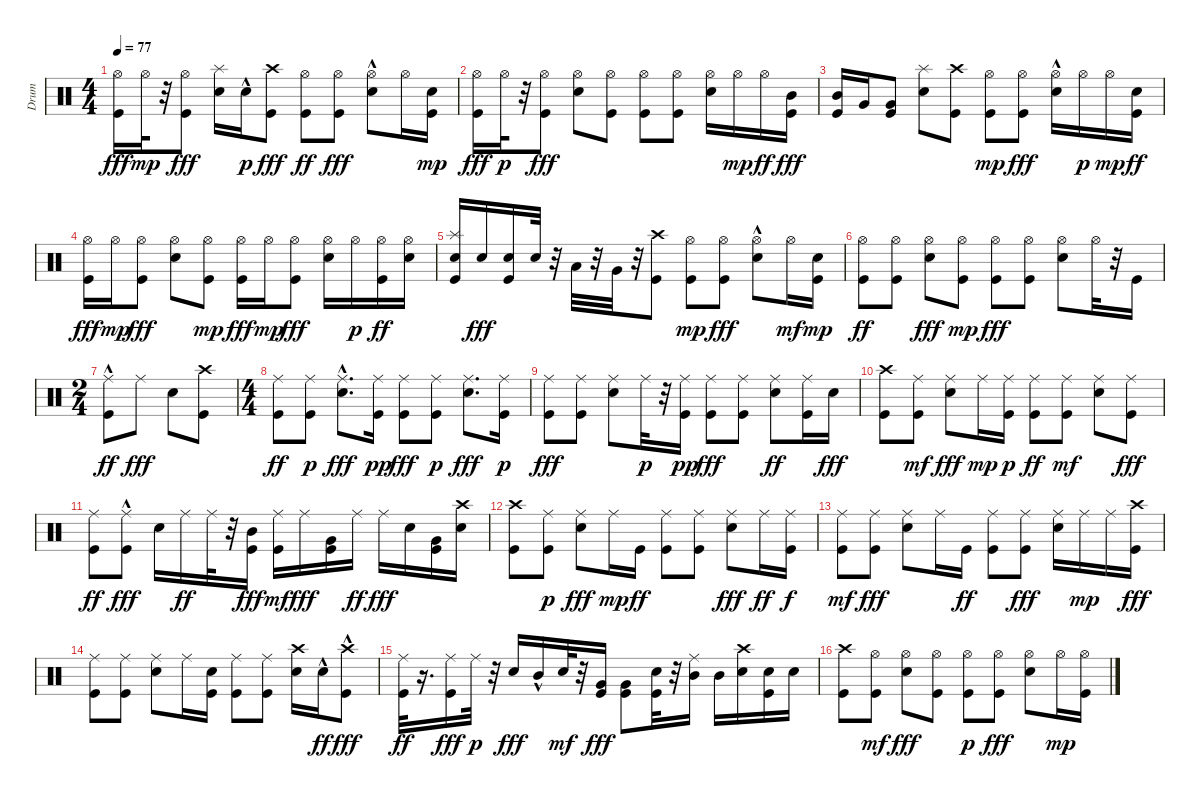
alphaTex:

\track ("Drum" "Drum") {instrument percussion}
\staff {score}
\articulation defaults
\ts (4 4)
\tempo 77
\clef neutral
\ks c
("Kick (hit)" "Hi-Hat (open)").16{dy fff} "Hi-Hat (open)".32{dy mp} r.32 ("Kick (hit)" "Hi-Hat (open)").8{dy fff} ("Splash (hit)" "Snare (hit) 2").16 "Snare (hit) 2"{hac}.16{dy p} ("Kick (hit)" "Crash high (hit)").8{dy fff} ("Kick (hit)" "Hi-Hat (open)").8{dy ff} ("Kick (hit)" "Hi-Hat (open)").8{dy fff} ("Hi-Hat (open)" "Snare (hit) 2"{hac}).8 "Hi-Hat (open)".16 ("Kick (hit)" "Snare (hit) 2").16{dy mp} |
("Kick (hit)" "Hi-Hat (open)").16{dy fff} "Hi-Hat (open)".32{dy p} r.32 ("Kick (hit)" "Hi-Hat (open)").8{dy fff} ("Hi-Hat (open)" "Snare (hit) 2").8 ("Kick (hit)" "Hi-Hat (open)").8 ("Kick (hit)" "Hi-Hat (open)").8 ("Kick (hit)" "Hi-Hat (open)").8 ("Hi-Hat (open)" "Snare (hit) 2").16 "Hi-Hat (open)".16{dy mp} "Hi-Hat (open)".16{dy ff} ("Kick (hit)" "Mid Tom (hit)").16{dy fff} |
("Kick (hit)" "Mid Tom (hit)").16 "Very Low Tom (hit)".16 ("Kick (hit)" "Very Low Tom (hit)").8 ("Splash (hit)" "Snare (hit) 2").8 ("Kick (hit)" "Crash high (hit)").8 ("Kick (hit)" "Hi-Hat (open)").8{dy mp} ("Kick (hit)" "Hi-Hat (open)").8{dy fff} ("Hi-Hat (open)" "Snare (hit) 2"{hac}).16 "Hi-Hat (open)".16{dy p} "Hi-Hat (open)".16{dy mp} ("Kick (hit)" "Snare (hit) 2").16{dy ff} |
("Kick (hit)" "Hi-Hat (open)").16{dy fff} "Hi-Hat (open)".16{dy mp} ("Kick (hit)" "Hi-Hat (open)").8{dy fff} ("Hi-Hat (open)" "Snare (hit) 2").8 ("Kick (hit)" "Hi-Hat (open)").8{dy mp} ("Kick (hit)" "Hi-Hat (open)").16{dy fff} "Hi-Hat (open)".16{dy mp} ("Kick (hit)" "Hi-Hat (open)").8{dy fff} ("Hi-Hat (open)" "Snare (hit) 2").16 "Hi-Hat (open)".16{dy p} ("Kick (hit)" "Hi-Hat (open)").16{dy ff} ("Snare (hit) 2" "Hi-Hat (open)").16 |
("Kick (hit)" "Splash (hit)" "Snare (hit) 2").16 "Snare (hit) 2".16{dy fff} ("Kick (hit)" "Snare (hit) 2").16 "Snare (hit) 2".32 r.32 "Low Tom (hit)".32 r.32 "Very Low Tom (hit)".32 r.32 ("Kick (hit)" "Crash high (hit)").8 ("Kick (hit)" "Hi-Hat (open)").8{dy mp} ("Kick (hit)" "Hi-Hat (open)").8{dy fff} ("Hi-Hat (open)" "Snare (hit) 2"{hac}).8 "Hi-Hat (open)".16{dy mf} ("Kick (hit)" "Snare (hit) 2").16{dy mp} |
("Kick (hit)" "Hi-Hat (open)").8{dy ff} ("Kick (hit)" "Hi-Hat (open)").8 ("Hi-Hat (open)" "Snare (hit) 2").8{dy fff} ("Kick (hit)" "Hi-Hat (open)").8{dy mp} ("Kick (hit)" "Hi-Hat (open)").8{dy fff} ("Kick (hit)" "Hi-Hat (open)").8 ("Hi-Hat (open)" "Snare (hit) 2").8 "Hi-Hat (open)".32 r.32 "Kick (hit)".16 |
\ts (2 4)
("Kick (hit)"{hac} "Ride (middle)").8{dy ff} "Ride (middle)".8{dy fff} "Snare (hit) 2".8 ("Kick (hit)" "Crash high (hit)").8 |
\ts (4 4)
("Kick (hit)" "Ride (middle)").8{dy ff} ("Kick (hit)" "Ride (middle)").8{dy p} ("Snare (hit) 2"{hac} "Ride (middle)").8{d dy fff} ("Kick (hit)" "Ride (middle)").16{dy pp} ("Kick (hit)" "Ride (middle)").8{dy fff} ("Kick (hit)" "Ride (middle)").8{dy p} ("Snare (hit) 2" "Ride (middle)").8{d dy fff} ("Kick (hit)" "Ride (middle)").16{dy p} |
("Kick (hit)" "Ride (middle)").8{dy fff} ("Kick (hit)" "Ride (middle)").8 ("Snare (hit) 2" "Ride (middle)").8 "Ride (middle)".32{dy p} r.32 ("Kick (hit)" "Ride (middle)").16{dy pp} ("Kick (hit)" "Ride (middle)").8{dy fff} ("Kick (hit)" "Ride (middle)").8 ("Snare (hit) 2" "Ride (middle)").8{dy ff} ("Kick (hit)" "Ride (middle)").16 "Snare (hit) 2".16{dy fff} |
("Kick (hit)" "Crash high (hit)").8 ("Kick (hit)" "Ride (middle)").8{dy mf} ("Snare (hit) 2" "Ride (middle)").8{dy fff} "Ride (middle)".16{dy mp} ("Kick (hit)" "Ride (middle)").16{dy p} ("Kick (hit)" "Ride (middle)").8{dy ff} ("Kick (hit)" "Ride (middle)").8{dy mf} ("Snare (hit) 2" "Ride (middle)").8 ("Kick (hit)" "Ride (middle)").8{dy fff} |
("Kick (hit)" "Ride (middle)").8{dy ff} ("Kick (hit)" "Ride (middle)"{hac}).8{dy fff} "Snare (hit) 2".16 "Ride (middle)".16{dy ff} "Ride (middle)".32 r.32 ("Kick (hit)" "Mid Tom (hit)").16{dy fff} ("Kick (hit)" "Ride (middle)").16{dy mf} "Ride (middle)".16{dy fff} ("Kick (hit)" "Very Low Tom (hit)").16 "Ride (middle)".16{dy ff} "Ride (middle)".16{dy fff} "Snare (hit) 2".16 ("Kick (hit)" "Very Low Tom (hit)").16 ("Crash high (hit)" "Snare (hit) 2").16 |
("Kick (hit)" "Crash high (hit)").8 ("Kick (hit)" "Ride (middle)").8{dy p} ("Snare (hit) 2" "Ride (middle)").8{dy fff} "Ride (middle)".16{dy mp} "Kick (hit)".16{dy ff} ("Kick (hit)" "Ride (middle)").8 ("Kick (hit)" "Ride (middle)").8 ("Snare (hit) 2" "Ride (middle)").8{dy fff} "Ride (middle)".16{dy ff} ("Kick (hit)" "Ride (middle)").16{dy f} |
("Kick (hit)" "Ride (middle)").8{dy mf} ("Kick (hit)" "Ride (middle)").8{dy fff} ("Snare (hit) 2" "Ride (middle)").8 "Ride (middle)".16 "Kick (hit)".16{dy ff} ("Kick (hit)" "Ride (middle)").8 ("Kick (hit)" "Ride (middle)").8{dy fff} ("Snare (hit) 2" "Ride (middle)").16 "Ride (middle)".16{dy mp} "Ride (middle)".16 ("Kick (hit)" "Crash high (hit)").16{dy fff} |
("Kick (hit)" "Ride (middle)").8 ("Kick (hit)" "Ride (middle)").8 ("Snare (hit) 2" "Ride (middle)").8 "Ride (middle)".16 ("Kick (hit)" "Snare (hit) 2").16 ("Kick (hit)" "Ride (middle)").8 ("Kick (hit)" "Ride (middle)").8 ("Crash high (hit)" "Snare (hit) 2").16 "Snare (hit) 2"{hac}.16{dy ff} ("Kick (hit)" "Crash high (hit)"{hac}).8{dy fff} |
("Kick (hit)" "Ride (middle)").32{dy ff} r.16{d} ("Kick (hit)" "Ride (middle)").16{dy fff} "Ride (middle)".32{dy p} r.32 "Snare (hit) 2".16{dy fff} "Mid Tom (hit)"{hac}.16 "Snare (hit) 2".32{dy mf} r.32 ("Kick (hit)" "Very Low Tom (hit)").16{dy fff} ("Kick (hit)" "Very Low Tom (hit)").8 ("Kick (hit)" "Snare (hit) 2").32 r.32 ("Ride (middle)" "Mid Tom (hit)").16 "Mid Tom (hit)".16 ("Crash high (hit)" "Snare (hit) 2").16 ("Kick (hit)" "Snare (hit) 2").16 "Snare (hit) 2".16 |
("Kick (hit)" "Crash high (hit)").8 ("Kick (hit)" "Hi-Hat (open)").8{dy mf} ("Hi-Hat (open)" "Snare (hit) 2").8{dy fff} ("Kick (hit)" "Hi-Hat (open)").8 ("Kick (hit)" "Hi-Hat (open)").8{dy p} ("Kick (hit)" "Hi-Hat (open)").8{dy fff} ("Hi-Hat (open)" "Snare (hit) 2").8 "Hi-Hat (open)".16{dy mp} ("Kick (hit)" "Hi-Hat (open)").16
